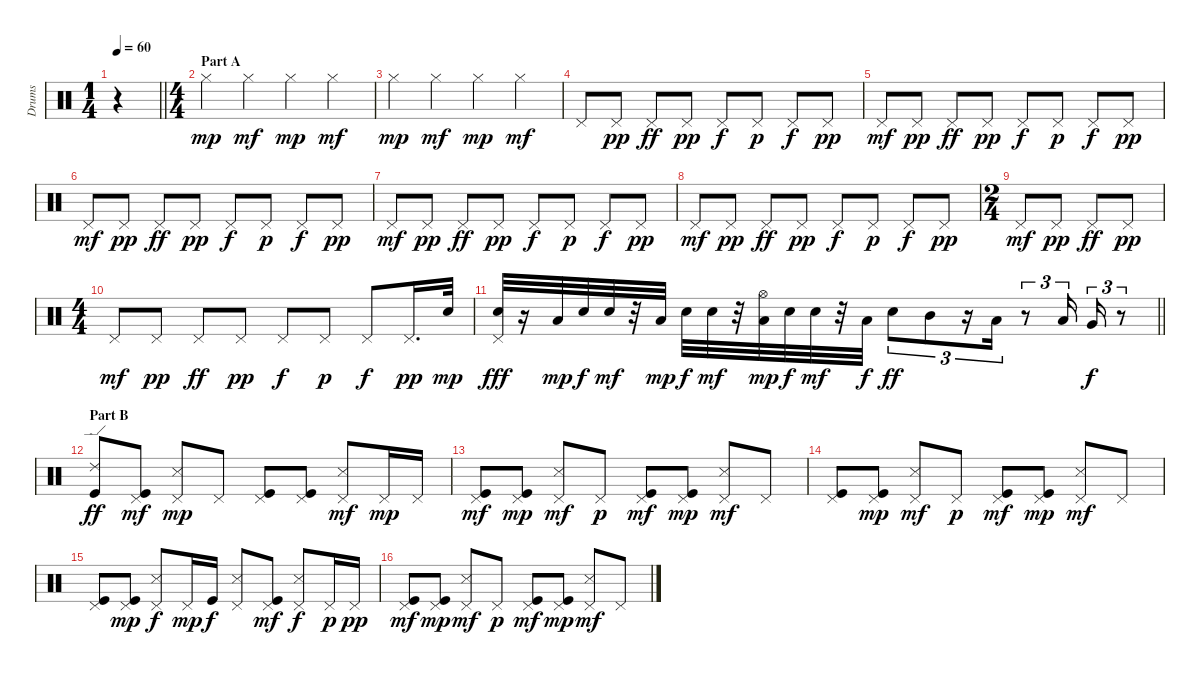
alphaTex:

\track ("Drums" "Drums") {instrument percussion}
\staff {score}
\articulation defaults
\ts (1 4)
\tempo 60
\clef neutral
\barLineRight lightlight
\ks c
r.4{dy mp} |
\ts (4 4)
\section ("" "Part A")
"Hi-Hat (closed)".4{volume 10} "Hi-Hat (closed)".4{dy mf} "Hi-Hat (closed)".4{dy mp} "Hi-Hat (closed)".4{dy mf} |
"Hi-Hat (closed)".4{dy mp} "Hi-Hat (closed)".4{dy mf} "Hi-Hat (closed)".4{dy mp} "Hi-Hat (closed)".4{dy mf} |
"Pedal Hi-Hat (hit)".8 "Pedal Hi-Hat (hit)".8{dy pp} "Pedal Hi-Hat (hit)".8{dy ff} "Pedal Hi-Hat (hit)".8{dy pp} "Pedal Hi-Hat (hit)".8{dy f} "Pedal Hi-Hat (hit)".8{dy p} "Pedal Hi-Hat (hit)".8{dy f} "Pedal Hi-Hat (hit)".8{dy pp} |
"Pedal Hi-Hat (hit)".8{dy mf} "Pedal Hi-Hat (hit)".8{dy pp} "Pedal Hi-Hat (hit)".8{dy ff} "Pedal Hi-Hat (hit)".8{dy pp} "Pedal Hi-Hat (hit)".8{dy f} "Pedal Hi-Hat (hit)".8{dy p} "Pedal Hi-Hat (hit)".8{dy f} "Pedal Hi-Hat (hit)".8{dy pp} |
"Pedal Hi-Hat (hit)".8{dy mf} "Pedal Hi-Hat (hit)".8{dy pp} "Pedal Hi-Hat (hit)".8{dy ff} "Pedal Hi-Hat (hit)".8{dy pp} "Pedal Hi-Hat (hit)".8{dy f} "Pedal Hi-Hat (hit)".8{dy p} "Pedal Hi-Hat (hit)".8{dy f} "Pedal Hi-Hat (hit)".8{dy pp} |
"Pedal Hi-Hat (hit)".8{dy mf} "Pedal Hi-Hat (hit)".8{dy pp} "Pedal Hi-Hat (hit)".8{dy ff} "Pedal Hi-Hat (hit)".8{dy pp} "Pedal Hi-Hat (hit)".8{dy f} "Pedal Hi-Hat (hit)".8{dy p} "Pedal Hi-Hat (hit)".8{dy f} "Pedal Hi-Hat (hit)".8{dy pp} |
"Pedal Hi-Hat (hit)".8{dy mf} "Pedal Hi-Hat (hit)".8{dy pp} "Pedal Hi-Hat (hit)".8{dy ff} "Pedal Hi-Hat (hit)".8{dy pp} "Pedal Hi-Hat (hit)".8{dy f} "Pedal Hi-Hat (hit)".8{dy p} "Pedal Hi-Hat (hit)".8{dy f} "Pedal Hi-Hat (hit)".8{dy pp} |
\ts (2 4)
"Pedal Hi-Hat (hit)".8{dy mf} "Pedal Hi-Hat (hit)".8{dy pp} "Pedal Hi-Hat (hit)".8{dy ff} "Pedal Hi-Hat (hit)".8{dy pp} |
\ts (4 4)
"Pedal Hi-Hat (hit)".8{dy mf} "Pedal Hi-Hat (hit)".8{dy pp} "Pedal Hi-Hat (hit)".8{dy ff} "Pedal Hi-Hat (hit)".8{dy pp} "Pedal Hi-Hat (hit)".8{dy f} "Pedal Hi-Hat (hit)".8{dy p} "Pedal Hi-Hat (hit)".8{dy f} "Pedal Hi-Hat (hit)".16{d dy pp} "Electric Snare (hit)".32{dy mp} |
\barLineRight lightlight
("Pedal Hi-Hat (hit)" "Electric Snare (hit)").32{dy fff} r.16 "Low Tom (hit)".32{dy mp} "Electric Snare (hit)".32{dy f} "Electric Snare (hit)".32{dy mf} r.32 "Low Tom (hit)".32{dy mp} "Electric Snare (hit)".32{dy f} "Electric Snare (hit)".32{dy mf} r.32 ("Hi-Hat (open)" "Low Tom (hit)").32{dy mp} "Electric Snare (hit)".32{dy f} "Electric Snare (hit)".32{dy mf} r.32 "Low Tom (hit)".32{dy f} "Electric Snare (hit)".8{tu (3 2) dy ff} "Mid Tom (hit)".8{tu (3 2)} r.16{tu (3 2)} "Low Tom (hit)".16{tu (3 2)} r.8{tu (3 2)} "Low Tom (hit)".16{tu (3 2)} "Very Low Tom (hit)".16{tu (3 2) dy f} r.8{tu (3 2)} |
\section ("" "Part B")
("Ride (edge) 2" "Kick (hit)").8{dy ff volume 10} ("Pedal Hi-Hat (hit)" "Kick (hit)").8{dy mf} ("Pedal Hi-Hat (hit)" "Snare (side stick) 3").8{dy mp} "Pedal Hi-Hat (hit)".8 ("Pedal Hi-Hat (hit)" "Kick (hit)").8 ("Pedal Hi-Hat (hit)" "Kick (hit)").8 ("Pedal Hi-Hat (hit)" "Snare (side stick) 3").8{dy mf} "Pedal Hi-Hat (hit)".16{dy mp} "Pedal Hi-Hat (hit)".16 |
("Pedal Hi-Hat (hit)" "Kick (hit)").8{dy mf} ("Pedal Hi-Hat (hit)" "Kick (hit)").8{dy mp} ("Pedal Hi-Hat (hit)" "Snare (side stick) 3").8{dy mf} "Pedal Hi-Hat (hit)".8{dy p} ("Pedal Hi-Hat (hit)" "Kick (hit)").8{dy mf} ("Pedal Hi-Hat (hit)" "Kick (hit)").8{dy mp} ("Pedal Hi-Hat (hit)" "Snare (side stick) 3").8{dy mf} "Pedal Hi-Hat (hit)".8 |
("Pedal Hi-Hat (hit)" "Kick (hit)").8 ("Pedal Hi-Hat (hit)" "Kick (hit)").8{dy mp} ("Pedal Hi-Hat (hit)" "Snare (side stick) 3").8{dy mf} "Pedal Hi-Hat (hit)".8{dy p} ("Pedal Hi-Hat (hit)" "Kick (hit)").8{dy mf} ("Pedal Hi-Hat (hit)" "Kick (hit)").8{dy mp} ("Pedal Hi-Hat (hit)" "Snare (side stick) 3").8{dy mf} "Pedal Hi-Hat (hit)".8 |
("Pedal Hi-Hat (hit)" "Kick (hit)").8 ("Pedal Hi-Hat (hit)" "Kick (hit)").8{dy mp} ("Pedal Hi-Hat (hit)" "Snare (side stick) 3").8{dy f} "Pedal Hi-Hat (hit)".16{dy mp} "Kick (hit)".16{dy f} ("Pedal Hi-Hat (hit)" "Snare (side stick) 3").8 ("Pedal Hi-Hat (hit)" "Kick (hit)").8{dy mf} ("Pedal Hi-Hat (hit)" "Snare (side stick) 3").8{dy f} "Pedal Hi-Hat (hit)".16{dy p} "Pedal Hi-Hat (hit)".16{dy pp} |
("Pedal Hi-Hat (hit)" "Kick (hit)").8{dy mf} ("Pedal Hi-Hat (hit)" "Kick (hit)").8{dy mp} ("Pedal Hi-Hat (hit)" "Snare (side stick) 3").8{dy mf} "Pedal Hi-Hat (hit)".8{dy p} ("Pedal Hi-Hat (hit)" "Kick (hit)").8{dy mf} ("Pedal Hi-Hat (hit)" "Kick (hit)").8{dy mp} ("Pedal Hi-Hat (hit)" "Snare (side stick) 3").8{dy mf} "Pedal Hi-Hat (hit)".8
